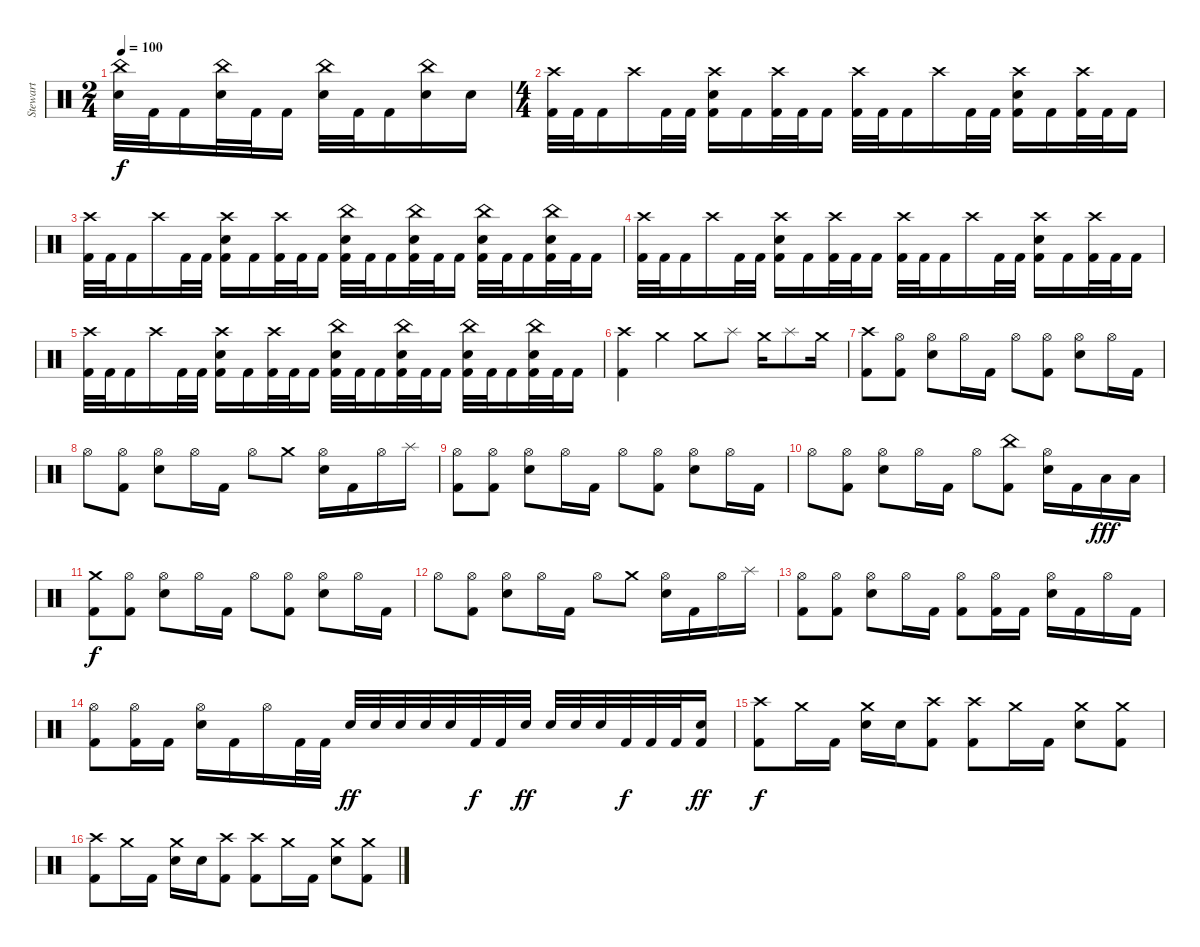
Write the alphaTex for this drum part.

\track ("Stewart" "Stewart") {instrument percussion}
\staff {score}
\articulation defaults
\ts (2 4)
\tempo 100
\clef neutral
\ks c
("China (hit)" "Electric Snare (hit)").32{dy f} "Kick (hit) 2".32 "Kick (hit) 2".16 ("China (hit)" "Electric Snare (hit)").32 "Kick (hit) 2".32 "Kick (hit) 2".16 ("China (hit)" "Electric Snare (hit)").32 "Kick (hit) 2".32 "Kick (hit) 2".16 ("China (hit)" "Electric Snare (hit)").16 "Electric Snare (hit)".16 |
\ts (4 4)
("Crash high (hit)" "Kick (hit) 2").32 "Kick (hit) 2".32 "Kick (hit) 2".16 "Crash high (hit)".16 "Kick (hit) 2".32 "Kick (hit) 2".32 ("Crash high (hit)" "Electric Snare (hit)" "Kick (hit) 2").16 "Kick (hit) 2".16 ("Crash high (hit)" "Kick (hit) 2").32 "Kick (hit) 2".32 "Kick (hit) 2".16 ("Crash high (hit)" "Kick (hit) 2").32 "Kick (hit) 2".32 "Kick (hit) 2".16 "Crash high (hit)".16 "Kick (hit) 2".32 "Kick (hit) 2".32 ("Crash high (hit)" "Electric Snare (hit)" "Kick (hit) 2").16 "Kick (hit) 2".16 ("Crash high (hit)" "Kick (hit) 2").32 "Kick (hit) 2".32 "Kick (hit) 2".16 |
("Crash high (hit)" "Kick (hit) 2").32 "Kick (hit) 2".32 "Kick (hit) 2".16 "Crash high (hit)".16 "Kick (hit) 2".32 "Kick (hit) 2".32 ("Crash high (hit)" "Electric Snare (hit)" "Kick (hit) 2").16 "Kick (hit) 2".16 ("Crash high (hit)" "Kick (hit) 2").32 "Kick (hit) 2".32 "Kick (hit) 2".16 ("China (hit)" "Electric Snare (hit)" "Kick (hit) 2").32 "Kick (hit) 2".32 "Kick (hit) 2".16 ("China (hit)" "Electric Snare (hit)" "Kick (hit) 2").32 "Kick (hit) 2".32 "Kick (hit) 2".16 ("China (hit)" "Electric Snare (hit)" "Kick (hit) 2").32 "Kick (hit) 2".32 "Kick (hit) 2".16 ("China (hit)" "Electric Snare (hit)" "Kick (hit) 2").32 "Kick (hit) 2".32 "Kick (hit) 2".16 |
("Crash high (hit)" "Kick (hit) 2").32 "Kick (hit) 2".32 "Kick (hit) 2".16 "Crash high (hit)".16 "Kick (hit) 2".32 "Kick (hit) 2".32 ("Crash high (hit)" "Electric Snare (hit)" "Kick (hit) 2").16 "Kick (hit) 2".16 ("Crash high (hit)" "Kick (hit) 2").32 "Kick (hit) 2".32 "Kick (hit) 2".16 ("Crash high (hit)" "Kick (hit) 2").32 "Kick (hit) 2".32 "Kick (hit) 2".16 "Crash high (hit)".16 "Kick (hit) 2".32 "Kick (hit) 2".32 ("Crash high (hit)" "Electric Snare (hit)" "Kick (hit) 2").16 "Kick (hit) 2".16 ("Crash high (hit)" "Kick (hit) 2").32 "Kick (hit) 2".32 "Kick (hit) 2".16 |
("Crash high (hit)" "Kick (hit) 2").32 "Kick (hit) 2".32 "Kick (hit) 2".16 "Crash high (hit)".16 "Kick (hit) 2".32 "Kick (hit) 2".32 ("Crash high (hit)" "Electric Snare (hit)" "Kick (hit) 2").16 "Kick (hit) 2".16 ("Crash high (hit)" "Kick (hit) 2").32 "Kick (hit) 2".32 "Kick (hit) 2".16 ("China (hit)" "Electric Snare (hit)" "Kick (hit) 2").32 "Kick (hit) 2".32 "Kick (hit) 2".16 ("China (hit)" "Electric Snare (hit)" "Kick (hit) 2").32 "Kick (hit) 2".32 "Kick (hit) 2".16 ("China (hit)" "Electric Snare (hit)" "Kick (hit) 2").32 "Kick (hit) 2".32 "Kick (hit) 2".16 ("China (hit)" "Electric Snare (hit)" "Kick (hit) 2").32 "Kick (hit) 2".32 "Kick (hit) 2".16 |
("Crash high (hit)" "Kick (hit) 2").4 "Crash medium (hit)".4 "Crash medium (hit)".8 "Splash (hit)".8 "Crash medium (hit)".16 "Splash (hit)".8 "Crash medium (hit)".16 |
("Crash high (hit)" "Kick (hit) 2").8 ("Hi-Hat (open)" "Kick (hit) 2").8 ("Hi-Hat (open)" "Electric Snare (hit)").8 "Hi-Hat (open)".16 "Kick (hit) 2".16 "Hi-Hat (open)".8 ("Hi-Hat (open)" "Kick (hit) 2").8 ("Hi-Hat (open)" "Electric Snare (hit)").8 "Hi-Hat (open)".16 "Kick (hit) 2".16 |
"Hi-Hat (open)".8 ("Hi-Hat (open)" "Kick (hit) 2").8 ("Hi-Hat (open)" "Electric Snare (hit)").8 "Hi-Hat (open)".16 "Kick (hit) 2".16 "Hi-Hat (open)".8 "Crash medium (hit)".8 ("Hi-Hat (open)" "Electric Snare (hit)").16 "Kick (hit) 2".16 "Hi-Hat (open)".16 "Splash (hit)".16 |
("Hi-Hat (open)" "Kick (hit) 2").8 ("Hi-Hat (open)" "Kick (hit) 2").8 ("Hi-Hat (open)" "Electric Snare (hit)").8 "Hi-Hat (open)".16 "Kick (hit) 2".16 "Hi-Hat (open)".8 ("Hi-Hat (open)" "Kick (hit) 2").8 ("Hi-Hat (open)" "Electric Snare (hit)").8 "Hi-Hat (open)".16 "Kick (hit) 2".16 |
"Hi-Hat (open)".8 ("Hi-Hat (open)" "Kick (hit) 2").8 ("Hi-Hat (open)" "Electric Snare (hit)").8 "Hi-Hat (open)".16 "Kick (hit) 2".16 "Hi-Hat (open)".8 ("China (hit)" "Kick (hit) 2").8 ("Hi-Hat (open)" "Electric Snare (hit)").16 "Kick (hit) 2".16 "Low Tom (hit)".16{dy fff} "Low Tom (hit)".16 |
("Crash medium (hit)" "Kick (hit) 2").8{dy f} ("Hi-Hat (open)" "Kick (hit) 2").8 ("Hi-Hat (open)" "Electric Snare (hit)").8 "Hi-Hat (open)".16 "Kick (hit) 2".16 "Hi-Hat (open)".8 ("Hi-Hat (open)" "Kick (hit) 2").8 ("Hi-Hat (open)" "Electric Snare (hit)").8 "Hi-Hat (open)".16 "Kick (hit) 2".16 |
"Hi-Hat (open)".8 ("Hi-Hat (open)" "Kick (hit) 2").8 ("Hi-Hat (open)" "Electric Snare (hit)").8 "Hi-Hat (open)".16 "Kick (hit) 2".16 "Hi-Hat (open)".8 "Crash medium (hit)".8 ("Hi-Hat (open)" "Electric Snare (hit)").16 "Kick (hit) 2".16 "Hi-Hat (open)".16 "Splash (hit)".16 |
("Hi-Hat (open)" "Kick (hit) 2").8 ("Hi-Hat (open)" "Kick (hit) 2").8 ("Hi-Hat (open)" "Electric Snare (hit)").8 "Hi-Hat (open)".16 "Kick (hit) 2".16 ("Hi-Hat (open)" "Kick (hit) 2").8 ("Hi-Hat (open)" "Kick (hit) 2").16 "Kick (hit) 2".16 ("Hi-Hat (open)" "Electric Snare (hit)").16 "Kick (hit) 2".16 "Hi-Hat (open)".16 "Kick (hit) 2".16 |
("Hi-Hat (open)" "Kick (hit) 2").8 ("Hi-Hat (open)" "Kick (hit) 2").16 "Kick (hit) 2".16 ("Hi-Hat (open)" "Electric Snare (hit)").16 "Kick (hit) 2".16 "Hi-Hat (open)".16 "Kick (hit) 2".32 "Kick (hit) 2".32 "Electric Snare (hit)".32{dy ff} "Electric Snare (hit)".32 "Electric Snare (hit)".32 "Electric Snare (hit)".32 "Electric Snare (hit)".32 "Kick (hit) 2".32{dy f} "Kick (hit) 2".32 "Electric Snare (hit)".32{dy ff} "Electric Snare (hit)".32 "Electric Snare (hit)".32 "Electric Snare (hit)".32 "Kick (hit) 2".32{dy f} "Kick (hit) 2".32 "Kick (hit) 2".32 ("Electric Snare (hit)" "Kick (hit) 2").16{dy ff} |
("Crash high (hit)" "Kick (hit) 2").8{dy f} "Crash medium (hit)".16 "Kick (hit) 2".16 ("Crash medium (hit)" "Electric Snare (hit)").16 "Electric Snare (hit)".16 ("Crash high (hit)" "Kick (hit) 2").8 ("Crash high (hit)" "Kick (hit) 2").8 "Crash medium (hit)".16 "Kick (hit) 2".16 ("Crash medium (hit)" "Electric Snare (hit)").8 ("Crash medium (hit)" "Kick (hit) 2").8 |
("Crash high (hit)" "Kick (hit) 2").8 "Crash medium (hit)".16 "Kick (hit) 2".16 ("Crash medium (hit)" "Electric Snare (hit)").16 "Electric Snare (hit)".16 ("Crash high (hit)" "Kick (hit) 2").8 ("Crash high (hit)" "Kick (hit) 2").8 "Crash medium (hit)".16 "Kick (hit) 2".16 ("Crash medium (hit)" "Electric Snare (hit)").8 ("Crash medium (hit)" "Kick (hit) 2").8
